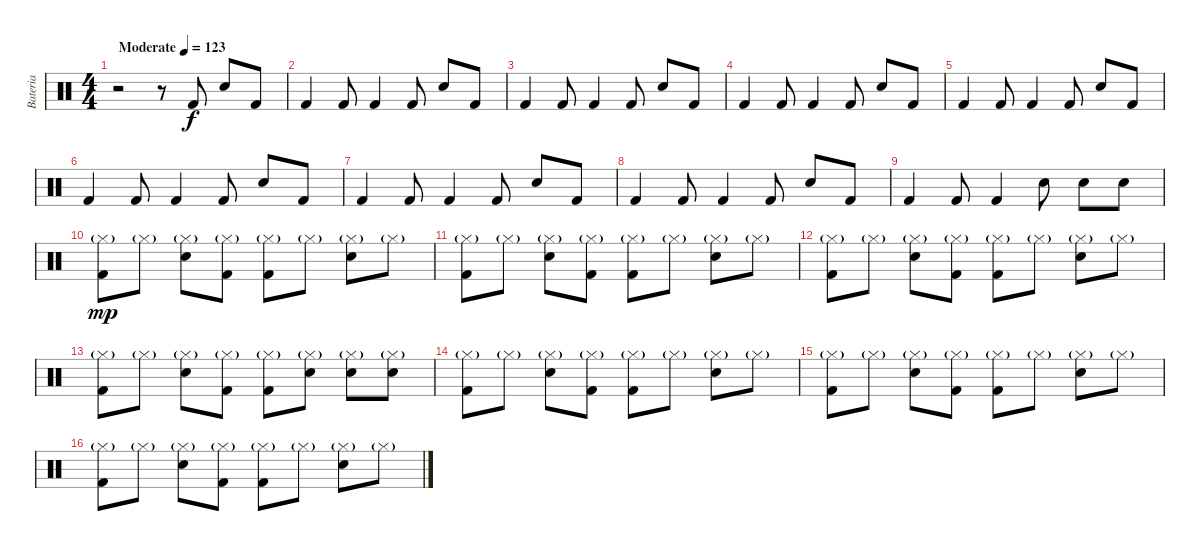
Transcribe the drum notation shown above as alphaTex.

\track ("Bateria" "Bateria") {instrument percussion}
\staff {score}
\articulation defaults
\ts (4 4)
\tempo (123 "Moderate")
\clef neutral
\ks c
r.2{dy f} r.8 "Kick (hit) 2".8 "Snare (hit) 2".8 "Kick (hit) 2".8 |
"Kick (hit) 2".4 "Kick (hit) 2".8 "Kick (hit) 2".4 "Kick (hit) 2".8 "Snare (hit) 2".8 "Kick (hit) 2".8 |
"Kick (hit) 2".4 "Kick (hit) 2".8 "Kick (hit) 2".4 "Kick (hit) 2".8 "Snare (hit) 2".8 "Kick (hit) 2".8 |
"Kick (hit) 2".4 "Kick (hit) 2".8 "Kick (hit) 2".4 "Kick (hit) 2".8 "Snare (hit) 2".8 "Kick (hit) 2".8 |
"Kick (hit) 2".4 "Kick (hit) 2".8 "Kick (hit) 2".4 "Kick (hit) 2".8 "Snare (hit) 2".8 "Kick (hit) 2".8 |
"Kick (hit) 2".4 "Kick (hit) 2".8 "Kick (hit) 2".4 "Kick (hit) 2".8 "Snare (hit) 2".8 "Kick (hit) 2".8 |
"Kick (hit) 2".4 "Kick (hit) 2".8 "Kick (hit) 2".4 "Kick (hit) 2".8 "Snare (hit) 2".8 "Kick (hit) 2".8 |
"Kick (hit) 2".4 "Kick (hit) 2".8 "Kick (hit) 2".4 "Kick (hit) 2".8 "Snare (hit) 2".8 "Kick (hit) 2".8 |
"Kick (hit) 2".4 "Kick (hit) 2".8 "Kick (hit) 2".4 "Snare (hit) 2".8 "Snare (hit) 2".8 "Snare (hit) 2".8 |
("Hi-Hat (closed)"{g} "Kick (hit) 2").8{dy mp} "Hi-Hat (closed)"{g}.8 ("Hi-Hat (closed)"{g} "Snare (hit) 2").8 ("Hi-Hat (closed)"{g} "Kick (hit) 2").8 ("Hi-Hat (closed)"{g} "Kick (hit) 2").8 "Hi-Hat (closed)"{g}.8 ("Hi-Hat (closed)"{g} "Snare (hit) 2").8 "Hi-Hat (closed)"{g}.8 |
("Hi-Hat (closed)"{g} "Kick (hit) 2").8 "Hi-Hat (closed)"{g}.8 ("Hi-Hat (closed)"{g} "Snare (hit) 2").8 ("Hi-Hat (closed)"{g} "Kick (hit) 2").8 ("Hi-Hat (closed)"{g} "Kick (hit) 2").8 "Hi-Hat (closed)"{g}.8 ("Hi-Hat (closed)"{g} "Snare (hit) 2").8 "Hi-Hat (closed)"{g}.8 |
("Hi-Hat (closed)"{g} "Kick (hit) 2").8 "Hi-Hat (closed)"{g}.8 ("Hi-Hat (closed)"{g} "Snare (hit) 2").8 ("Hi-Hat (closed)"{g} "Kick (hit) 2").8 ("Hi-Hat (closed)"{g} "Kick (hit) 2").8 "Hi-Hat (closed)"{g}.8 ("Hi-Hat (closed)"{g} "Snare (hit) 2").8 "Hi-Hat (closed)"{g}.8 |
("Hi-Hat (closed)"{g} "Kick (hit) 2").8 "Hi-Hat (closed)"{g}.8 ("Hi-Hat (closed)"{g} "Snare (hit) 2").8 ("Hi-Hat (closed)"{g} "Kick (hit) 2").8 ("Hi-Hat (closed)"{g} "Kick (hit) 2").8 ("Hi-Hat (closed)"{g} "Snare (hit) 2").8 ("Hi-Hat (closed)"{g} "Snare (hit) 2").8 ("Hi-Hat (closed)"{g} "Snare (hit) 2").8 |
("Hi-Hat (closed)"{g} "Kick (hit) 2").8 "Hi-Hat (closed)"{g}.8 ("Hi-Hat (closed)"{g} "Snare (hit) 2").8 ("Hi-Hat (closed)"{g} "Kick (hit) 2").8 ("Hi-Hat (closed)"{g} "Kick (hit) 2").8 "Hi-Hat (closed)"{g}.8 ("Hi-Hat (closed)"{g} "Snare (hit) 2").8 "Hi-Hat (closed)"{g}.8 |
("Hi-Hat (closed)"{g} "Kick (hit) 2").8 "Hi-Hat (closed)"{g}.8 ("Hi-Hat (closed)"{g} "Snare (hit) 2").8 ("Hi-Hat (closed)"{g} "Kick (hit) 2").8 ("Hi-Hat (closed)"{g} "Kick (hit) 2").8 "Hi-Hat (closed)"{g}.8 ("Hi-Hat (closed)"{g} "Snare (hit) 2").8 "Hi-Hat (closed)"{g}.8 |
("Hi-Hat (closed)"{g} "Kick (hit) 2").8 "Hi-Hat (closed)"{g}.8 ("Hi-Hat (closed)"{g} "Snare (hit) 2").8 ("Hi-Hat (closed)"{g} "Kick (hit) 2").8 ("Hi-Hat (closed)"{g} "Kick (hit) 2").8 "Hi-Hat (closed)"{g}.8 ("Hi-Hat (closed)"{g} "Snare (hit) 2").8 "Hi-Hat (closed)"{g}.8
